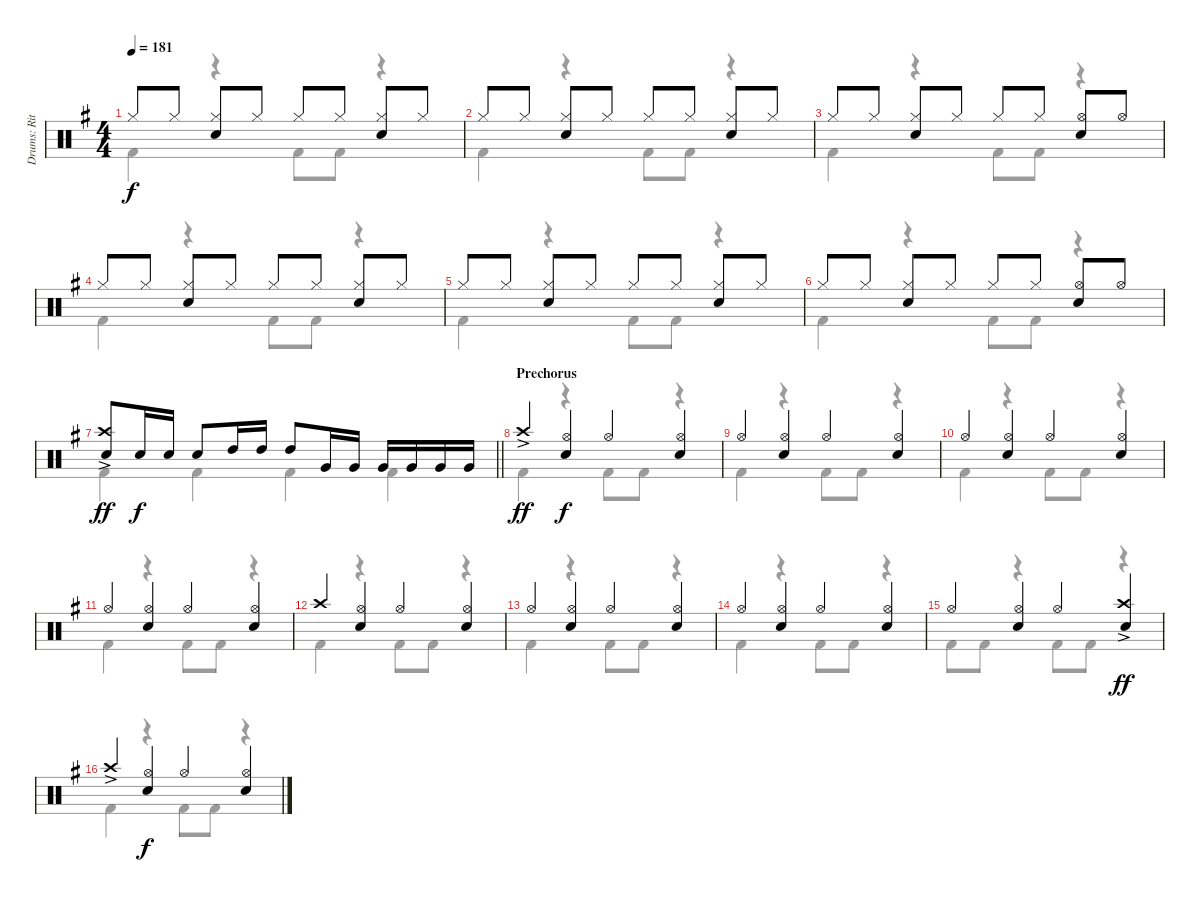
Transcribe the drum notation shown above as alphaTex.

\track ("Drums: Ritsu Tianaka" "Drums: Rit") {instrument percussion}
\staff {score}
\articulation defaults
\voice
\ts (4 4)
\tempo 181
\clef neutral
\ks g "Hi-Hat (closed)".8{dy f} "Hi-Hat (closed)".8
("Hi-Hat (closed)" "Snare (hit) 2").8 "Hi-Hat (closed)".8 "Hi-Hat (closed)".8 "Hi-Hat (closed)".8 ("Hi-Hat (closed)" "Snare (hit) 2").8 "Hi-Hat (closed)".8 |
"Hi-Hat (closed)".8 "Hi-Hat (closed)".8 ("Hi-Hat (closed)" "Snare (hit) 2").8 "Hi-Hat (closed)".8 "Hi-Hat (closed)".8 "Hi-Hat (closed)".8 ("Hi-Hat (closed)" "Snare (hit) 2").8 "Hi-Hat (closed)".8 |
"Hi-Hat (closed)".8 "Hi-Hat (closed)".8 ("Hi-Hat (closed)" "Snare (hit) 2").8 "Hi-Hat (closed)".8 "Hi-Hat (closed)".8 "Hi-Hat (closed)".8 ("Hi-Hat (open)" "Snare (hit) 2").8 "Hi-Hat (open)".8 |
"Hi-Hat (closed)".8 "Hi-Hat (closed)".8 ("Hi-Hat (closed)" "Snare (hit) 2").8 "Hi-Hat (closed)".8 "Hi-Hat (closed)".8 "Hi-Hat (closed)".8 ("Hi-Hat (closed)" "Snare (hit) 2").8 "Hi-Hat (closed)".8 |
"Hi-Hat (closed)".8 "Hi-Hat (closed)".8 ("Hi-Hat (closed)" "Snare (hit) 2").8 "Hi-Hat (closed)".8 "Hi-Hat (closed)".8 "Hi-Hat (closed)".8 ("Hi-Hat (closed)" "Snare (hit) 2").8 "Hi-Hat (closed)".8 |
"Hi-Hat (closed)".8 "Hi-Hat (closed)".8 ("Hi-Hat (closed)" "Snare (hit) 2").8 "Hi-Hat (closed)".8 "Hi-Hat (closed)".8 "Hi-Hat (closed)".8 ("Hi-Hat (open)" "Snare (hit) 2").8 "Hi-Hat (open)".8 |
\barLineRight lightlight
("Crash high (hit)"{ac} "Snare (hit) 2").8{dy ff} "Snare (hit) 2".16{dy f} "Snare (hit) 2".16 "Snare (hit) 2".8 "High Tom (hit)".16 "High Tom (hit)".16 "High Tom (hit)".8 "Very Low Tom (hit)".16 "Very Low Tom (hit)".16 "Very Low Tom (hit)".16 "Very Low Tom (hit)".16 "Very Low Tom (hit)".16 "Very Low Tom (hit)".16 |
\section ("" "Prechorus")
"Crash high (hit)"{ac}.4{dy ff} ("Hi-Hat (open)" "Snare (hit) 2").4{dy f} "Hi-Hat (open)".4 ("Hi-Hat (open)" "Snare (hit) 2").4 |
"Hi-Hat (open)".4 ("Hi-Hat (open)" "Snare (hit) 2").4 "Hi-Hat (open)".4 ("Hi-Hat (open)" "Snare (hit) 2").4 |
"Hi-Hat (open)".4 ("Hi-Hat (open)" "Snare (hit) 2").4 "Hi-Hat (open)".4 ("Hi-Hat (open)" "Snare (hit) 2").4 |
"Hi-Hat (open)".4 ("Hi-Hat (open)" "Snare (hit) 2").4 "Hi-Hat (open)".4 ("Hi-Hat (open)" "Snare (hit) 2").4 |
"Crash high (hit)".4 ("Hi-Hat (open)" "Snare (hit) 2").4 "Hi-Hat (open)".4 ("Hi-Hat (open)" "Snare (hit) 2").4 |
"Hi-Hat (open)".4 ("Hi-Hat (open)" "Snare (hit) 2").4 "Hi-Hat (open)".4 ("Hi-Hat (open)" "Snare (hit) 2").4 |
"Hi-Hat (open)".4 ("Hi-Hat (open)" "Snare (hit) 2").4 "Hi-Hat (open)".4 ("Hi-Hat (open)" "Snare (hit) 2").4 |
"Hi-Hat (open)".4 ("Hi-Hat (open)" "Snare (hit) 2").4 "Hi-Hat (open)".4 ("Crash high (hit)"{ac} "Snare (hit) 2").4{dy ff} |
"Crash high (hit)"{ac}.4 ("Hi-Hat (open)" "Snare (hit) 2").4{dy f} "Hi-Hat (open)".4 ("Hi-Hat (open)" "Snare (hit) 2").4
\voice
\clef neutral
\ottava regular
\simile none
\ks g "Kick (hit) 2".4{dy f}
r.4 "Kick (hit) 2".8 "Kick (hit) 2".8 r.4 |
"Kick (hit) 2".4 r.4 "Kick (hit) 2".8 "Kick (hit) 2".8 r.4 |
"Kick (hit) 2".4 r.4 "Kick (hit) 2".8 "Kick (hit) 2".8 r.4 |
"Kick (hit) 2".4 r.4 "Kick (hit) 2".8 "Kick (hit) 2".8 r.4 |
"Kick (hit) 2".4 r.4 "Kick (hit) 2".8 "Kick (hit) 2".8 r.4 |
"Kick (hit) 2".4 r.4 "Kick (hit) 2".8 "Kick (hit) 2".8 r.4 |
\barLineRight lightlight "Kick (hit) 2".4 "Kick (hit) 2".4 "Kick (hit) 2".4 "Kick (hit) 2".4
|
"Kick (hit) 2".4 r.4 "Kick (hit) 2".8 "Kick (hit) 2".8 r.4 |
"Kick (hit) 2".4 r.4 "Kick (hit) 2".8 "Kick (hit) 2".8 r.4 |
"Kick (hit) 2".4 r.4 "Kick (hit) 2".8 "Kick (hit) 2".8 r.4 |
"Kick (hit) 2".4 r.4 "Kick (hit) 2".8 "Kick (hit) 2".8 r.4 |
"Kick (hit) 2".4 r.4 "Kick (hit) 2".8 "Kick (hit) 2".8 r.4 |
"Kick (hit) 2".4 r.4 "Kick (hit) 2".8 "Kick (hit) 2".8 r.4 |
"Kick (hit) 2".4 r.4 "Kick (hit) 2".8 "Kick (hit) 2".8 r.4 |
"Kick (hit) 2".8 "Kick (hit) 2".8 r.4 "Kick (hit) 2".8 "Kick (hit) 2".8 r.4 |
"Kick (hit) 2".4 r.4 "Kick (hit) 2".8 "Kick (hit) 2".8 r.4
